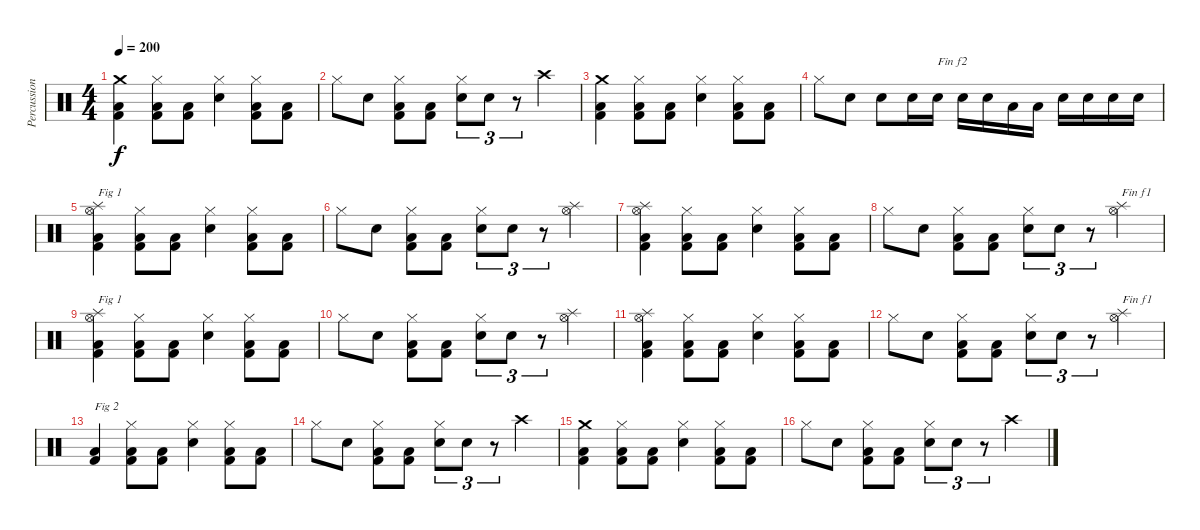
\track ("Percussions" "Percussion") {instrument percussion}
\staff {score}
\articulation defaults
\ts (4 4)
\tempo 200
\clef neutral
\ks c
("Kick (hit) 2" "Low Floor Tom (hit)" "Crash medium (hit)").4{dy f} ("Kick (hit) 2" "Low Floor Tom (hit)" "Hi-Hat (closed)").8 ("Kick (hit) 2" "Low Floor Tom (hit)").8 ("Snare (hit) 2" "Hi-Hat (closed)").4 ("Kick (hit) 2" "Low Floor Tom (hit)" "Hi-Hat (closed)").8 ("Kick (hit) 2" "Low Floor Tom (hit)").8 |
"Hi-Hat (closed)".8 "Snare (hit) 2".8 ("Kick (hit) 2" "Low Floor Tom (hit)" "Hi-Hat (closed)").8 ("Kick (hit) 2" "Low Floor Tom (hit)").8 ("Snare (hit) 2" "Hi-Hat (closed)").8{tu (3 2)} "Snare (hit) 2".8{tu (3 2)} r.8{tu (3 2)} "Crash high (hit)".4 |
("Kick (hit) 2" "Low Floor Tom (hit)" "Crash medium (hit)").4 ("Kick (hit) 2" "Low Floor Tom (hit)" "Hi-Hat (closed)").8 ("Kick (hit) 2" "Low Floor Tom (hit)").8 ("Snare (hit) 2" "Hi-Hat (closed)").4 ("Kick (hit) 2" "Low Floor Tom (hit)" "Hi-Hat (closed)").8 ("Kick (hit) 2" "Low Floor Tom (hit)").8 |
"Hi-Hat (closed)".8 "Snare (hit) 2".8 "Snare (hit) 2".8 "Snare (hit) 2".16 "Snare (hit) 2".16{txt "Fin f2"} "Snare (hit) 2".16 "Snare (hit) 2".16 "Low Tom (hit)".16 "Low Tom (hit)".16 "Snare (hit) 2".16 "Snare (hit) 2".16 "Snare (hit) 2".16 "Snare (hit) 2".16 |
("Kick (hit) 2" "Low Floor Tom (hit)" "Hi-Hat (open)" "Splash (hit)").4{txt "Fig 1"} ("Kick (hit) 2" "Low Floor Tom (hit)" "Hi-Hat (closed)").8 ("Kick (hit) 2" "Low Floor Tom (hit)").8 ("Snare (hit) 2" "Hi-Hat (closed)").4 ("Kick (hit) 2" "Low Floor Tom (hit)" "Hi-Hat (closed)").8 ("Kick (hit) 2" "Low Floor Tom (hit)").8 |
"Hi-Hat (closed)".8 "Snare (hit) 2".8 ("Kick (hit) 2" "Low Floor Tom (hit)" "Hi-Hat (closed)").8 ("Kick (hit) 2" "Low Floor Tom (hit)").8 ("Snare (hit) 2" "Hi-Hat (closed)").8{tu (3 2)} "Snare (hit) 2".8{tu (3 2)} r.8{tu (3 2)} ("Hi-Hat (open)" "Splash (hit)").4 |
("Kick (hit) 2" "Low Floor Tom (hit)" "Hi-Hat (open)" "Splash (hit)").4 ("Kick (hit) 2" "Low Floor Tom (hit)" "Hi-Hat (closed)").8 ("Kick (hit) 2" "Low Floor Tom (hit)").8 ("Snare (hit) 2" "Hi-Hat (closed)").4 ("Kick (hit) 2" "Low Floor Tom (hit)" "Hi-Hat (closed)").8 ("Kick (hit) 2" "Low Floor Tom (hit)").8 |
"Hi-Hat (closed)".8 "Snare (hit) 2".8 ("Kick (hit) 2" "Low Floor Tom (hit)" "Hi-Hat (closed)").8 ("Kick (hit) 2" "Low Floor Tom (hit)").8 ("Snare (hit) 2" "Hi-Hat (closed)").8{tu (3 2)} "Snare (hit) 2".8{tu (3 2)} r.8{tu (3 2)} ("Hi-Hat (open)" "Splash (hit)").4{txt "Fin f1"} |
("Kick (hit) 2" "Low Floor Tom (hit)" "Hi-Hat (open)" "Splash (hit)").4{txt "Fig 1"} ("Kick (hit) 2" "Low Floor Tom (hit)" "Hi-Hat (closed)").8 ("Kick (hit) 2" "Low Floor Tom (hit)").8 ("Snare (hit) 2" "Hi-Hat (closed)").4 ("Kick (hit) 2" "Low Floor Tom (hit)" "Hi-Hat (closed)").8 ("Kick (hit) 2" "Low Floor Tom (hit)").8 |
"Hi-Hat (closed)".8 "Snare (hit) 2".8 ("Kick (hit) 2" "Low Floor Tom (hit)" "Hi-Hat (closed)").8 ("Kick (hit) 2" "Low Floor Tom (hit)").8 ("Snare (hit) 2" "Hi-Hat (closed)").8{tu (3 2)} "Snare (hit) 2".8{tu (3 2)} r.8{tu (3 2)} ("Hi-Hat (open)" "Splash (hit)").4 |
("Kick (hit) 2" "Low Floor Tom (hit)" "Hi-Hat (open)" "Splash (hit)").4 ("Kick (hit) 2" "Low Floor Tom (hit)" "Hi-Hat (closed)").8 ("Kick (hit) 2" "Low Floor Tom (hit)").8 ("Snare (hit) 2" "Hi-Hat (closed)").4 ("Kick (hit) 2" "Low Floor Tom (hit)" "Hi-Hat (closed)").8 ("Kick (hit) 2" "Low Floor Tom (hit)").8 |
"Hi-Hat (closed)".8 "Snare (hit) 2".8 ("Kick (hit) 2" "Low Floor Tom (hit)" "Hi-Hat (closed)").8 ("Kick (hit) 2" "Low Floor Tom (hit)").8 ("Snare (hit) 2" "Hi-Hat (closed)").8{tu (3 2)} "Snare (hit) 2".8{tu (3 2)} r.8{tu (3 2)} ("Hi-Hat (open)" "Splash (hit)").4{txt "Fin f1"} |
("Kick (hit) 2" "Low Floor Tom (hit)").4{txt "Fig 2"} ("Kick (hit) 2" "Low Floor Tom (hit)" "Hi-Hat (closed)").8 ("Kick (hit) 2" "Low Floor Tom (hit)").8 ("Snare (hit) 2" "Hi-Hat (closed)").4 ("Kick (hit) 2" "Low Floor Tom (hit)" "Hi-Hat (closed)").8 ("Kick (hit) 2" "Low Floor Tom (hit)").8 |
"Hi-Hat (closed)".8 "Snare (hit) 2".8 ("Kick (hit) 2" "Low Floor Tom (hit)" "Hi-Hat (closed)").8 ("Kick (hit) 2" "Low Floor Tom (hit)").8 ("Snare (hit) 2" "Hi-Hat (closed)").8{tu (3 2)} "Snare (hit) 2".8{tu (3 2)} r.8{tu (3 2)} "Crash high (hit)".4 |
("Kick (hit) 2" "Low Floor Tom (hit)" "Crash medium (hit)").4 ("Kick (hit) 2" "Low Floor Tom (hit)" "Hi-Hat (closed)").8 ("Kick (hit) 2" "Low Floor Tom (hit)").8 ("Snare (hit) 2" "Hi-Hat (closed)").4 ("Kick (hit) 2" "Low Floor Tom (hit)" "Hi-Hat (closed)").8 ("Kick (hit) 2" "Low Floor Tom (hit)").8 |
"Hi-Hat (closed)".8 "Snare (hit) 2".8 ("Kick (hit) 2" "Low Floor Tom (hit)" "Hi-Hat (closed)").8 ("Kick (hit) 2" "Low Floor Tom (hit)").8 ("Snare (hit) 2" "Hi-Hat (closed)").8{tu (3 2)} "Snare (hit) 2".8{tu (3 2)} r.8{tu (3 2)} "Crash high (hit)".4
